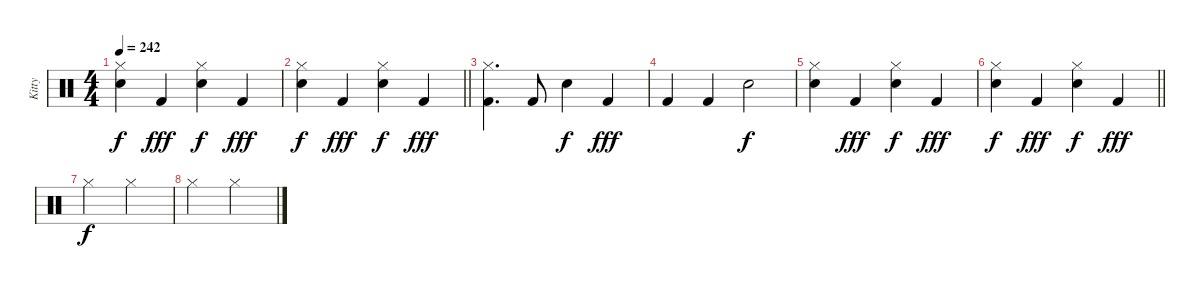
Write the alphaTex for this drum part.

\track ("Kitty" "Kitty") {instrument percussion}
\staff {score}
\articulation defaults
\ts (4 4)
\tempo 242
\clef neutral
\ks c
("Hi-Hat (closed)" "Electric Snare (hit)").4{dy f} "Kick (hit) 2".4{dy fff} ("Hi-Hat (closed)" "Electric Snare (hit)").4{dy f} "Kick (hit) 2".4{dy fff} |
\barLineRight lightlight
("Hi-Hat (closed)" "Electric Snare (hit)").4{dy f} "Kick (hit) 2".4{dy fff} ("Hi-Hat (closed)" "Electric Snare (hit)").4{dy f} "Kick (hit) 2".4{dy fff} |
("Hi-Hat (closed)" "Kick (hit) 2").4{d} "Kick (hit) 2".8 "Electric Snare (hit)".4{dy f} "Kick (hit) 2".4{dy fff} |
"Kick (hit) 2".4 "Kick (hit) 2".4 "Electric Snare (hit)".2{dy f} |
("Hi-Hat (closed)" "Electric Snare (hit)").4 "Kick (hit) 2".4{dy fff} ("Hi-Hat (closed)" "Electric Snare (hit)").4{dy f} "Kick (hit) 2".4{dy fff} |
\barLineRight lightlight
("Hi-Hat (closed)" "Electric Snare (hit)").4{dy f} "Kick (hit) 2".4{dy fff} ("Hi-Hat (closed)" "Electric Snare (hit)").4{dy f} "Kick (hit) 2".4{dy fff} |
"Hi-Hat (closed)".2{dy f} "Hi-Hat (closed)".2 |
"Hi-Hat (closed)".2 "Hi-Hat (closed)".2
